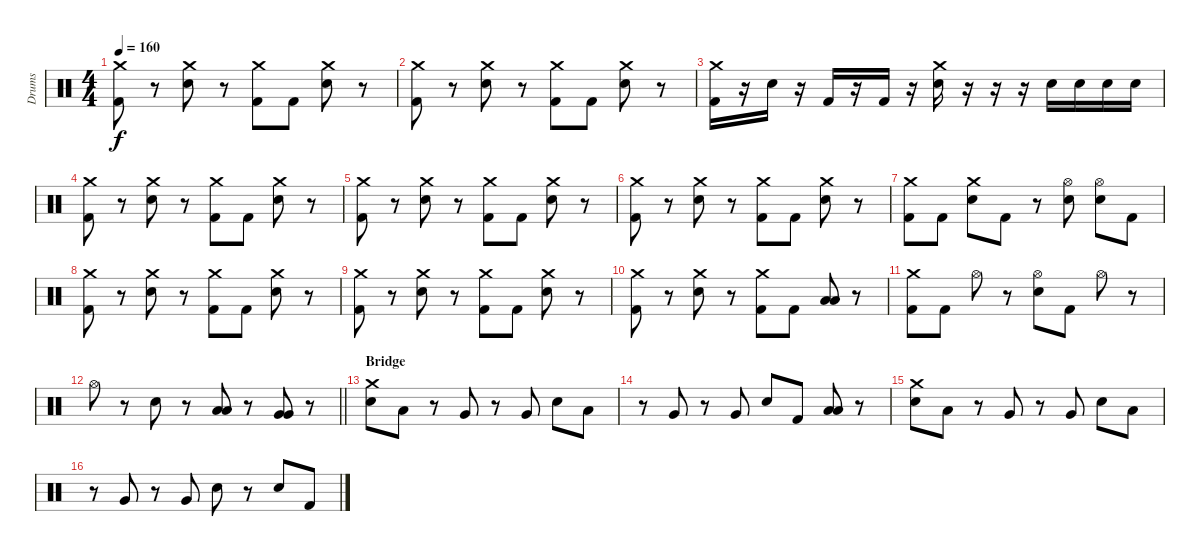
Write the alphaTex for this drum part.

\track ("Drums" "Drums") {instrument percussion}
\staff {score}
\articulation defaults
\ts (4 4)
\tempo 160
\clef neutral
\ks c
("Crash medium (hit)" "Kick (hit) 2").8{dy f} r.8 ("Crash medium (hit)" "Electric Snare (hit)").8 r.8 ("Crash medium (hit)" "Kick (hit) 2").8 "Kick (hit) 2".8 ("Crash medium (hit)" "Electric Snare (hit)").8 r.8 |
("Crash medium (hit)" "Kick (hit) 2").8 r.8 ("Crash medium (hit)" "Electric Snare (hit)").8 r.8 ("Crash medium (hit)" "Kick (hit) 2").8 "Kick (hit) 2".8 ("Crash medium (hit)" "Electric Snare (hit)").8 r.8 |
("Crash medium (hit)" "Kick (hit) 2").16 r.16 "Electric Snare (hit)".16 r.16 "Kick (hit) 2".16 r.16 "Kick (hit) 2".16 r.16 ("Crash medium (hit)" "Electric Snare (hit)").16 r.16 r.16 r.16 "Electric Snare (hit)".16 "Electric Snare (hit)".16 "Electric Snare (hit)".16 "Electric Snare (hit)".16 |
("Crash medium (hit)" "Kick (hit) 2").8 r.8 ("Crash medium (hit)" "Electric Snare (hit)").8 r.8 ("Crash medium (hit)" "Kick (hit) 2").8 "Kick (hit) 2".8 ("Crash medium (hit)" "Electric Snare (hit)").8 r.8 |
("Crash medium (hit)" "Kick (hit) 2").8 r.8 ("Crash medium (hit)" "Electric Snare (hit)").8 r.8 ("Crash medium (hit)" "Kick (hit) 2").8 "Kick (hit) 2".8 ("Crash medium (hit)" "Electric Snare (hit)").8 r.8 |
("Crash medium (hit)" "Kick (hit) 2").8 r.8 ("Crash medium (hit)" "Electric Snare (hit)").8 r.8 ("Crash medium (hit)" "Kick (hit) 2").8 "Kick (hit) 2".8 ("Crash medium (hit)" "Electric Snare (hit)").8 r.8 |
("Crash medium (hit)" "Kick (hit) 2").8 "Kick (hit) 2".8 ("Crash medium (hit)" "Electric Snare (hit)").8 "Kick (hit) 2".8 r.8 ("Hi-Hat (open)" "Electric Snare (hit)").8 ("Hi-Hat (open)" "Electric Snare (hit)").8 "Kick (hit) 2".8 |
("Crash medium (hit)" "Kick (hit) 2").8 r.8 ("Crash medium (hit)" "Electric Snare (hit)").8 r.8 ("Crash medium (hit)" "Kick (hit) 2").8 "Kick (hit) 2".8 ("Crash medium (hit)" "Electric Snare (hit)").8 r.8 |
("Crash medium (hit)" "Kick (hit) 2").8 r.8 ("Crash medium (hit)" "Electric Snare (hit)").8 r.8 ("Crash medium (hit)" "Kick (hit) 2").8 "Kick (hit) 2".8 ("Crash medium (hit)" "Electric Snare (hit)").8 r.8 |
("Crash medium (hit)" "Kick (hit) 2").8 r.8 ("Crash medium (hit)" "Electric Snare (hit)").8 r.8 ("Crash medium (hit)" "Kick (hit) 2").8 "Kick (hit) 2".8 ("Low Tom (hit)" "Low Tom (hit)").8 r.8 |
("Crash medium (hit)" "Kick (hit) 2").8 "Kick (hit) 2".8 "Hi-Hat (open)".8 r.8 ("Hi-Hat (open)" "Electric Snare (hit)").8 "Kick (hit) 2".8 "Hi-Hat (open)".8 r.8 |
\barLineRight lightlight "Hi-Hat (open)".8
r.8 "Electric Snare (hit)".8 r.8 ("Low Tom (hit)" "Low Tom (hit)").8 r.8 ("Very Low Tom (hit)" "Very Low Tom (hit)").8 r.8 |
\section ("" "Bridge")
("Crash medium (hit)" "Electric Snare (hit)").8 "Low Tom (hit)".8 r.8 "Very Low Tom (hit)".8 r.8 "Very Low Tom (hit)".8 "Electric Snare (hit)".8 "Low Tom (hit)".8 |
r.8 "Very Low Tom (hit)".8 r.8 "Very Low Tom (hit)".8 "Electric Snare (hit)".8 "Kick (hit) 2".8 ("Low Tom (hit)" "Low Tom (hit)").8 r.8 |
("Crash medium (hit)" "Electric Snare (hit)").8 "Low Tom (hit)".8 r.8 "Very Low Tom (hit)".8 r.8 "Very Low Tom (hit)".8 "Electric Snare (hit)".8 "Low Tom (hit)".8 |
r.8 "Very Low Tom (hit)".8 r.8 "Very Low Tom (hit)".8 "Electric Snare (hit)".8 r.8 "Electric Snare (hit)".8 "Kick (hit) 2".8
